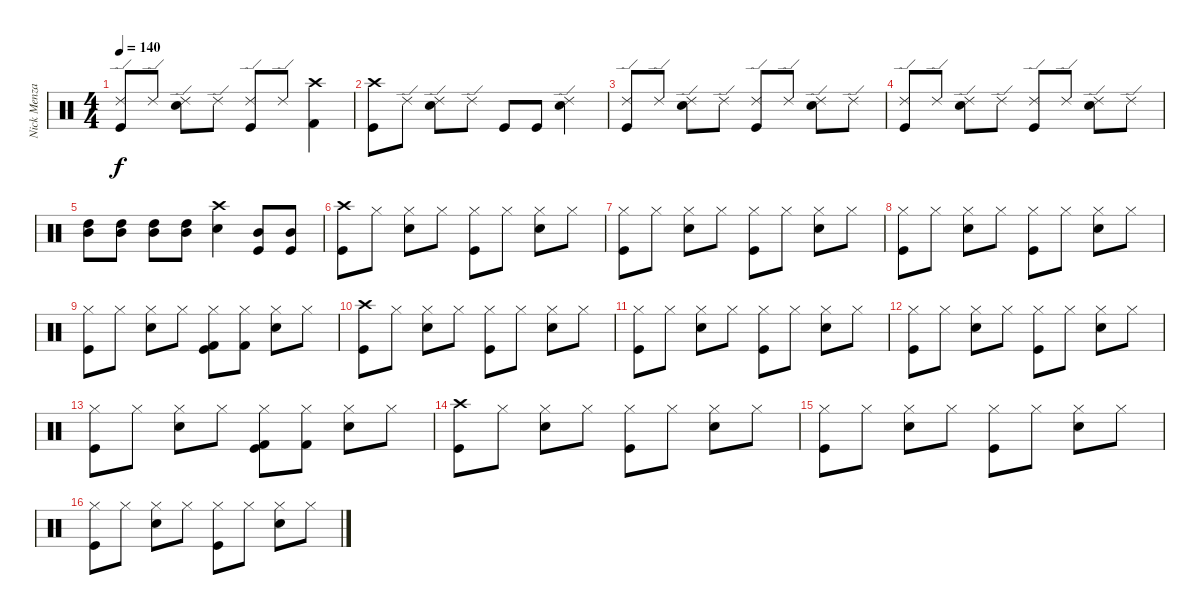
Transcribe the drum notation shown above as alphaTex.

\track ("Nick Menza (Drums)" "Nick Menza") {instrument percussion}
\staff {score}
\articulation defaults
\ts (4 4)
\tempo 140
\clef neutral
\ks c
("Ride (edge) 2" "Kick (hit)").8{dy f} "Ride (edge) 2".8 ("Ride (edge) 2" "Snare (hit) 2").8 "Ride (edge) 2".8 ("Ride (edge) 2" "Kick (hit)").8 "Ride (edge) 2".8 ("Kick (hit) 2" "Crash high (hit)").4 |
("Crash high (hit)" "Kick (hit)").8 "Ride (edge) 2".8 ("Ride (edge) 2" "Snare (hit) 2").8 "Ride (edge) 2".8 "Kick (hit)".8 "Kick (hit)".8 ("Ride (edge) 2" "Snare (hit) 2").4 |
("Ride (edge) 2" "Kick (hit)").8 "Ride (edge) 2".8 ("Ride (edge) 2" "Snare (hit) 2").8 "Ride (edge) 2".8 ("Ride (edge) 2" "Kick (hit)").8 "Ride (edge) 2".8 ("Ride (edge) 2" "Snare (hit) 2").8 "Ride (edge) 2".8 |
("Ride (edge) 2" "Kick (hit)").8 "Ride (edge) 2".8 ("Ride (edge) 2" "Snare (hit) 2").8 "Ride (edge) 2".8 ("Ride (edge) 2" "Kick (hit)").8 "Ride (edge) 2".8 ("Ride (edge) 2" "Snare (hit) 2").8 "Ride (edge) 2".8 |
("High Tom (hit)" "Mid Tom (hit)").8 ("High Tom (hit)" "Mid Tom (hit)").8 ("High Tom (hit)" "Mid Tom (hit)").8 ("High Tom (hit)" "Mid Tom (hit)").8 ("Crash high (hit)" "Snare (hit) 2").4 ("Kick (hit)" "Mid Tom (hit)").8 ("Kick (hit)" "Mid Tom (hit)").8 |
("Crash high (hit)" "Kick (hit)").8 "Hi-Hat (closed)".8 ("Hi-Hat (closed)" "Snare (hit) 2").8 "Hi-Hat (closed)".8 ("Hi-Hat (closed)" "Kick (hit)").8 "Hi-Hat (closed)".8 ("Hi-Hat (closed)" "Snare (hit) 2").8 "Hi-Hat (closed)".8 |
("Hi-Hat (closed)" "Kick (hit)").8 "Hi-Hat (closed)".8 ("Hi-Hat (closed)" "Snare (hit) 2").8 "Hi-Hat (closed)".8 ("Hi-Hat (closed)" "Kick (hit)").8 "Hi-Hat (closed)".8 ("Hi-Hat (closed)" "Snare (hit) 2").8 "Hi-Hat (closed)".8 |
("Hi-Hat (closed)" "Kick (hit)").8 "Hi-Hat (closed)".8 ("Hi-Hat (closed)" "Snare (hit) 2").8 "Hi-Hat (closed)".8 ("Hi-Hat (closed)" "Kick (hit)").8 "Hi-Hat (closed)".8 ("Hi-Hat (closed)" "Snare (hit) 2").8 "Hi-Hat (closed)".8 |
("Hi-Hat (closed)" "Kick (hit)").8 "Hi-Hat (closed)".8 ("Hi-Hat (closed)" "Snare (hit) 2").8 "Hi-Hat (closed)".8 ("Hi-Hat (closed)" "Kick (hit) 2" "Kick (hit)").8 ("Hi-Hat (closed)" "Kick (hit) 2").8 ("Hi-Hat (closed)" "Snare (hit) 2").8 "Hi-Hat (closed)".8 |
("Crash high (hit)" "Kick (hit)").8 "Hi-Hat (closed)".8 ("Hi-Hat (closed)" "Snare (hit) 2").8 "Hi-Hat (closed)".8 ("Hi-Hat (closed)" "Kick (hit)").8 "Hi-Hat (closed)".8 ("Hi-Hat (closed)" "Snare (hit) 2").8 "Hi-Hat (closed)".8 |
("Hi-Hat (closed)" "Kick (hit)").8 "Hi-Hat (closed)".8 ("Hi-Hat (closed)" "Snare (hit) 2").8 "Hi-Hat (closed)".8 ("Hi-Hat (closed)" "Kick (hit)").8 "Hi-Hat (closed)".8 ("Hi-Hat (closed)" "Snare (hit) 2").8 "Hi-Hat (closed)".8 |
("Hi-Hat (closed)" "Kick (hit)").8 "Hi-Hat (closed)".8 ("Hi-Hat (closed)" "Snare (hit) 2").8 "Hi-Hat (closed)".8 ("Hi-Hat (closed)" "Kick (hit)").8 "Hi-Hat (closed)".8 ("Hi-Hat (closed)" "Snare (hit) 2").8 "Hi-Hat (closed)".8 |
("Hi-Hat (closed)" "Kick (hit)").8 "Hi-Hat (closed)".8 ("Hi-Hat (closed)" "Snare (hit) 2").8 "Hi-Hat (closed)".8 ("Hi-Hat (closed)" "Kick (hit) 2" "Kick (hit)").8 ("Hi-Hat (closed)" "Kick (hit) 2").8 ("Hi-Hat (closed)" "Snare (hit) 2").8 "Hi-Hat (closed)".8 |
("Crash high (hit)" "Kick (hit)").8 "Hi-Hat (closed)".8 ("Hi-Hat (closed)" "Snare (hit) 2").8 "Hi-Hat (closed)".8 ("Hi-Hat (closed)" "Kick (hit)").8 "Hi-Hat (closed)".8 ("Hi-Hat (closed)" "Snare (hit) 2").8 "Hi-Hat (closed)".8 |
("Hi-Hat (closed)" "Kick (hit)").8 "Hi-Hat (closed)".8 ("Hi-Hat (closed)" "Snare (hit) 2").8 "Hi-Hat (closed)".8 ("Hi-Hat (closed)" "Kick (hit)").8 "Hi-Hat (closed)".8 ("Hi-Hat (closed)" "Snare (hit) 2").8 "Hi-Hat (closed)".8 |
("Hi-Hat (closed)" "Kick (hit)").8 "Hi-Hat (closed)".8 ("Hi-Hat (closed)" "Snare (hit) 2").8 "Hi-Hat (closed)".8 ("Hi-Hat (closed)" "Kick (hit)").8 "Hi-Hat (closed)".8 ("Hi-Hat (closed)" "Snare (hit) 2").8 "Hi-Hat (closed)".8
